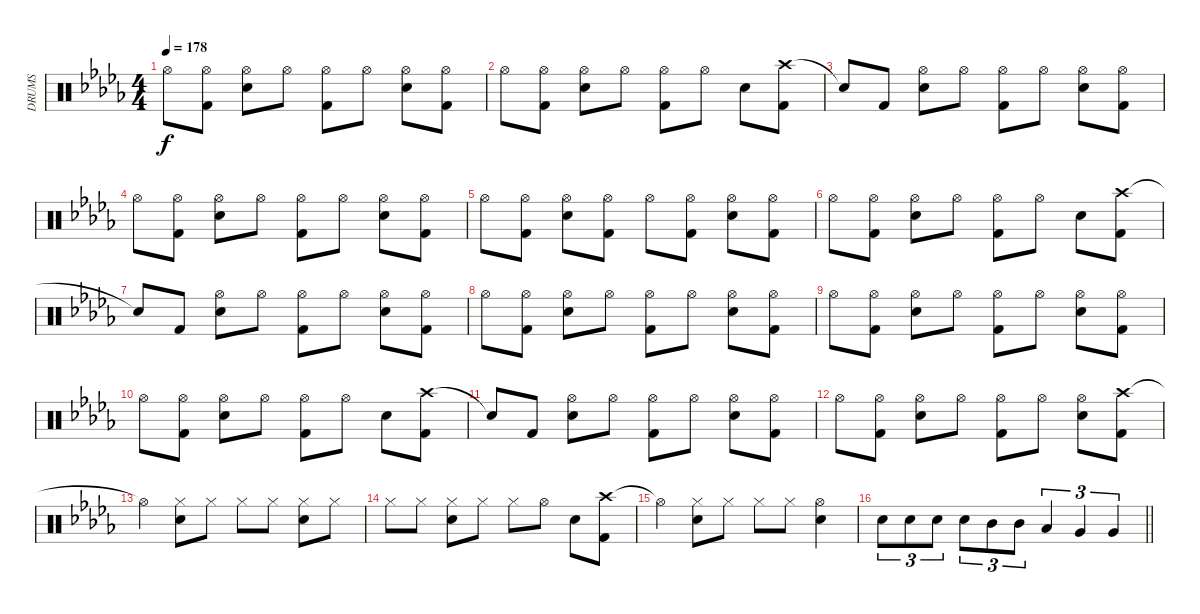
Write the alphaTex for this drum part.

\track ("DRUMS" "DRUMS") {instrument percussion}
\staff {score}
\articulation defaults
\ts (4 4)
\tempo 178
\clef neutral
\ks db "Hi-Hat (open)".8{dy f}
("Hi-Hat (open)" "Kick (hit) 2").8 ("Hi-Hat (open)" "Snare (hit) 2").8 "Hi-Hat (open)".8 ("Hi-Hat (open)" "Kick (hit) 2").8 "Hi-Hat (open)".8 ("Hi-Hat (open)" "Snare (hit) 2").8 ("Hi-Hat (open)" "Kick (hit) 2").8 |
"Hi-Hat (open)".8 ("Hi-Hat (open)" "Kick (hit) 2").8 ("Hi-Hat (open)" "Snare (hit) 2").8 "Hi-Hat (open)".8 ("Hi-Hat (open)" "Kick (hit) 2").8 "Hi-Hat (open)".8 "Snare (hit) 2".8 ("Crash high (hit)" "Kick (hit) 2").8 |
"Snare (hit)"{t}.8 "Kick (hit) 2".8 ("Hi-Hat (open)" "Snare (hit) 2").8 "Hi-Hat (open)".8 ("Hi-Hat (open)" "Kick (hit) 2").8 "Hi-Hat (open)".8 ("Hi-Hat (open)" "Snare (hit) 2").8 ("Hi-Hat (open)" "Kick (hit) 2").8 |
"Hi-Hat (open)".8 ("Hi-Hat (open)" "Kick (hit) 2").8 ("Hi-Hat (open)" "Snare (hit) 2").8 "Hi-Hat (open)".8 ("Hi-Hat (open)" "Kick (hit) 2").8 "Hi-Hat (open)".8 ("Hi-Hat (open)" "Snare (hit) 2").8 ("Hi-Hat (open)" "Kick (hit) 2").8 |
"Hi-Hat (open)".8 ("Hi-Hat (open)" "Kick (hit) 2").8 ("Hi-Hat (open)" "Snare (hit) 2").8 ("Hi-Hat (open)" "Kick (hit) 2").8 "Hi-Hat (open)".8 ("Hi-Hat (open)" "Kick (hit) 2").8 ("Hi-Hat (open)" "Snare (hit) 2").8 ("Hi-Hat (open)" "Kick (hit) 2").8 |
"Hi-Hat (open)".8 ("Hi-Hat (open)" "Kick (hit) 2").8 ("Hi-Hat (open)" "Snare (hit) 2").8 "Hi-Hat (open)".8 ("Hi-Hat (open)" "Kick (hit) 2").8 "Hi-Hat (open)".8 "Snare (hit) 2".8 ("Crash high (hit)" "Kick (hit) 2").8 |
"Snare (hit)"{t}.8 "Kick (hit) 2".8 ("Hi-Hat (open)" "Snare (hit) 2").8 "Hi-Hat (open)".8 ("Hi-Hat (open)" "Kick (hit) 2").8 "Hi-Hat (open)".8 ("Hi-Hat (open)" "Snare (hit) 2").8 ("Hi-Hat (open)" "Kick (hit) 2").8 |
"Hi-Hat (open)".8 ("Hi-Hat (open)" "Kick (hit) 2").8 ("Hi-Hat (open)" "Snare (hit) 2").8 "Hi-Hat (open)".8 ("Hi-Hat (open)" "Kick (hit) 2").8 "Hi-Hat (open)".8 ("Hi-Hat (open)" "Snare (hit) 2").8 ("Hi-Hat (open)" "Kick (hit) 2").8 |
"Hi-Hat (open)".8 ("Hi-Hat (open)" "Kick (hit) 2").8 ("Hi-Hat (open)" "Snare (hit) 2").8 "Hi-Hat (open)".8 ("Hi-Hat (open)" "Kick (hit) 2").8 "Hi-Hat (open)".8 ("Hi-Hat (open)" "Snare (hit) 2").8 ("Hi-Hat (open)" "Kick (hit) 2").8 |
"Hi-Hat (open)".8 ("Hi-Hat (open)" "Kick (hit) 2").8 ("Hi-Hat (open)" "Snare (hit) 2").8 "Hi-Hat (open)".8 ("Hi-Hat (open)" "Kick (hit) 2").8 "Hi-Hat (open)".8 "Snare (hit) 2".8 ("Crash high (hit)" "Kick (hit) 2").8 |
"Snare (hit)"{t}.8 "Kick (hit) 2".8 ("Hi-Hat (open)" "Snare (hit) 2").8 "Hi-Hat (open)".8 ("Hi-Hat (open)" "Kick (hit) 2").8 "Hi-Hat (open)".8 ("Hi-Hat (open)" "Snare (hit) 2").8 ("Hi-Hat (open)" "Kick (hit) 2").8 |
"Hi-Hat (open)".8 ("Hi-Hat (open)" "Kick (hit) 2").8 ("Hi-Hat (open)" "Snare (hit) 2").8 "Hi-Hat (open)".8 ("Hi-Hat (open)" "Kick (hit) 2").8 "Hi-Hat (open)".8 ("Hi-Hat (open)" "Snare (hit) 2").8 ("Crash high (hit)" "Kick (hit) 2").8 |
"Hi-Hat (open)"{t}.4 ("Hi-Hat (closed)" "Snare (hit) 2").8 "Hi-Hat (closed)".8 "Hi-Hat (closed)".8 "Hi-Hat (closed)".8 ("Hi-Hat (closed)" "Snare (hit) 2").8 "Hi-Hat (closed)".8 |
"Hi-Hat (closed)".8 "Hi-Hat (closed)".8 ("Hi-Hat (closed)" "Snare (hit) 2").8 "Hi-Hat (closed)".8 "Hi-Hat (closed)".8 "Hi-Hat (open)".8 "Snare (hit) 2".8 ("Crash high (hit)" "Kick (hit) 2").8 |
"Hi-Hat (open)"{t}.4 ("Hi-Hat (closed)" "Snare (hit) 2").8 "Hi-Hat (closed)".8 "Hi-Hat (closed)".8 "Hi-Hat (closed)".8 ("Hi-Hat (open)" "Snare (hit) 2").4 |
\barLineRight lightlight "Snare (hit) 2".8{tu (3 2)} "Snare (hit) 2".8{tu (3 2)} "Snare (hit) 2".8{tu (3 2)} "Snare (hit) 2".8{tu (3 2)} "Mid Tom (hit)".8{tu (3 2)} "Mid Tom (hit)".8{tu (3 2)} "Low Tom (hit)".4{tu (3 2)} "Very Low Tom (hit)".4{tu (3 2)} "Very Low Tom (hit)".4{tu (3 2)}
